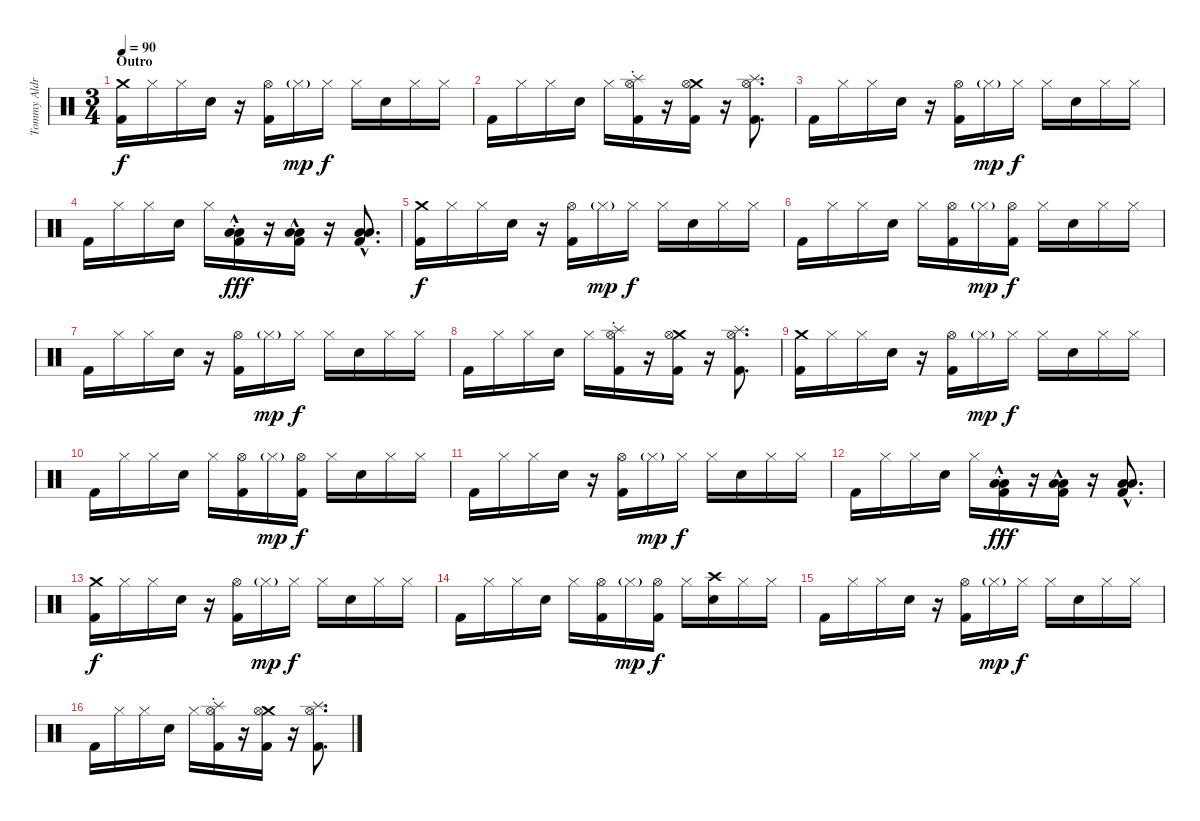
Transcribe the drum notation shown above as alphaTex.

\track ("Tommy Aldridge" "Tommy Aldr") {instrument percussion}
\staff {score}
\articulation defaults
\ts (3 4)
\section ("" "Outro")
\tempo 90
\clef neutral
\ks c
("Crash medium (hit)" "Kick (hit) 2").16{dy f} "Hi-Hat (closed)".16 "Hi-Hat (closed)".16 "Snare (hit) 2".16 r.16 ("Hi-Hat (open)" "Kick (hit) 2").16 "Hi-Hat (closed)"{g}.16{dy mp} "Hi-Hat (closed)".16{dy f} "Hi-Hat (closed)".16 "Snare (hit) 2".16 "Hi-Hat (closed)".16 "Hi-Hat (closed)".16 |
"Kick (hit) 2".16 "Hi-Hat (closed)".16 "Hi-Hat (closed)".16 "Snare (hit) 2".16 "Hi-Hat (closed)".16 ("Splash (hit)" "Hi-Hat (open)"{st} "Kick (hit) 2").16 r.16 ("Crash medium (hit)" "Hi-Hat (open)" "Kick (hit) 2").16 r.16 ("Splash (hit)" "Hi-Hat (open)" "Kick (hit) 2").8{d} |
"Kick (hit) 2".16 "Hi-Hat (closed)".16 "Hi-Hat (closed)".16 "Snare (hit) 2".16 r.16 ("Hi-Hat (open)" "Kick (hit) 2").16 "Hi-Hat (closed)"{g}.16{dy mp} "Hi-Hat (closed)".16{dy f} "Hi-Hat (closed)".16 "Snare (hit) 2".16 "Hi-Hat (closed)".16 "Hi-Hat (closed)".16 |
"Kick (hit) 2".16 "Hi-Hat (closed)".16 "Hi-Hat (closed)".16 "Snare (hit) 2".16 "Hi-Hat (closed)".16 ("Low Tom (hit)" "Kick (hit) 2"{hac st} "Low Tom (hit)"{hac}).16{dy fff} r.16 ("Kick (hit) 2" "Low Tom (hit)"{hac} "Low Tom (hit)"{hac}).16 r.16 ("Kick (hit) 2" "Low Tom (hit)"{hac} "Low Tom (hit)"{hac}).8{d} |
("Crash medium (hit)" "Kick (hit) 2").16{dy f} "Hi-Hat (closed)".16 "Hi-Hat (closed)".16 "Snare (hit) 2".16 r.16 ("Hi-Hat (open)" "Kick (hit) 2").16 "Hi-Hat (closed)"{g}.16{dy mp} "Hi-Hat (closed)".16{dy f} "Hi-Hat (closed)".16 "Snare (hit) 2".16 "Hi-Hat (closed)".16 "Hi-Hat (closed)".16 |
"Kick (hit) 2".16 "Hi-Hat (closed)".16 "Hi-Hat (closed)".16 "Snare (hit) 2".16 "Hi-Hat (closed)".16 ("Hi-Hat (open)" "Kick (hit) 2").16 "Hi-Hat (closed)"{g}.16{dy mp} ("Hi-Hat (open)" "Kick (hit) 2").16{dy f} "Hi-Hat (closed)".16 "Snare (hit) 2".16 "Hi-Hat (closed)".16 "Hi-Hat (closed)".16 |
"Kick (hit) 2".16 "Hi-Hat (closed)".16 "Hi-Hat (closed)".16 "Snare (hit) 2".16 r.16 ("Hi-Hat (open)" "Kick (hit) 2").16 "Hi-Hat (closed)"{g}.16{dy mp} "Hi-Hat (closed)".16{dy f} "Hi-Hat (closed)".16 "Snare (hit) 2".16 "Hi-Hat (closed)".16 "Hi-Hat (closed)".16 |
"Kick (hit) 2".16 "Hi-Hat (closed)".16 "Hi-Hat (closed)".16 "Snare (hit) 2".16 "Hi-Hat (closed)".16 ("Splash (hit)" "Hi-Hat (open)"{st} "Kick (hit) 2").16 r.16 ("Crash medium (hit)" "Hi-Hat (open)" "Kick (hit) 2").16 r.16 ("Splash (hit)" "Hi-Hat (open)" "Kick (hit) 2").8{d} |
("Crash medium (hit)" "Kick (hit) 2").16 "Hi-Hat (closed)".16 "Hi-Hat (closed)".16 "Snare (hit) 2".16 r.16 ("Hi-Hat (open)" "Kick (hit) 2").16 "Hi-Hat (closed)"{g}.16{dy mp} "Hi-Hat (closed)".16{dy f} "Hi-Hat (closed)".16 "Snare (hit) 2".16 "Hi-Hat (closed)".16 "Hi-Hat (closed)".16 |
"Kick (hit) 2".16 "Hi-Hat (closed)".16 "Hi-Hat (closed)".16 "Snare (hit) 2".16 "Hi-Hat (closed)".16 ("Hi-Hat (open)" "Kick (hit) 2").16 "Hi-Hat (closed)"{g}.16{dy mp} ("Hi-Hat (open)" "Kick (hit) 2").16{dy f} "Hi-Hat (closed)".16 "Snare (hit) 2".16 "Hi-Hat (closed)".16 "Hi-Hat (closed)".16 |
"Kick (hit) 2".16 "Hi-Hat (closed)".16 "Hi-Hat (closed)".16 "Snare (hit) 2".16 r.16 ("Hi-Hat (open)" "Kick (hit) 2").16 "Hi-Hat (closed)"{g}.16{dy mp} "Hi-Hat (closed)".16{dy f} "Hi-Hat (closed)".16 "Snare (hit) 2".16 "Hi-Hat (closed)".16 "Hi-Hat (closed)".16 |
"Kick (hit) 2".16 "Hi-Hat (closed)".16 "Hi-Hat (closed)".16 "Snare (hit) 2".16 "Hi-Hat (closed)".16 ("Low Tom (hit)" "Kick (hit) 2"{hac st} "Low Tom (hit)"{hac}).16{dy fff} r.16 ("Kick (hit) 2" "Low Tom (hit)"{hac} "Low Tom (hit)"{hac}).16 r.16 ("Kick (hit) 2" "Low Tom (hit)"{hac} "Low Tom (hit)"{hac}).8{d} |
("Crash medium (hit)" "Kick (hit) 2").16{dy f volume 8} "Hi-Hat (closed)".16 "Hi-Hat (closed)".16 "Snare (hit) 2".16 r.16 ("Hi-Hat (open)" "Kick (hit) 2").16 "Hi-Hat (closed)"{g}.16{dy mp} "Hi-Hat (closed)".16{dy f} "Hi-Hat (closed)".16 "Snare (hit) 2".16 "Hi-Hat (closed)".16 "Hi-Hat (closed)".16 |
"Kick (hit) 2".16 "Hi-Hat (closed)".16 "Hi-Hat (closed)".16 "Snare (hit) 2".16 "Hi-Hat (closed)".16 ("Hi-Hat (open)" "Kick (hit) 2").16 "Hi-Hat (closed)"{g}.16{dy mp} ("Hi-Hat (open)" "Kick (hit) 2").16{dy f} "Hi-Hat (closed)".16 ("Crash high (hit)" "Snare (hit) 2").16 "Hi-Hat (closed)".16 "Hi-Hat (closed)".16 |
"Kick (hit) 2".16 "Hi-Hat (closed)".16 "Hi-Hat (closed)".16 "Snare (hit) 2".16 r.16 ("Hi-Hat (open)" "Kick (hit) 2").16 "Hi-Hat (closed)"{g}.16{dy mp} "Hi-Hat (closed)".16{dy f} "Hi-Hat (closed)".16 "Snare (hit) 2".16 "Hi-Hat (closed)".16 "Hi-Hat (closed)".16 |
"Kick (hit) 2".16 "Hi-Hat (closed)".16 "Hi-Hat (closed)".16 "Snare (hit) 2".16 "Hi-Hat (closed)".16 ("Splash (hit)" "Hi-Hat (open)"{st} "Kick (hit) 2").16 r.16 ("Crash medium (hit)" "Hi-Hat (open)" "Kick (hit) 2").16 r.16 ("Splash (hit)" "Hi-Hat (open)" "Kick (hit) 2").8{d}
